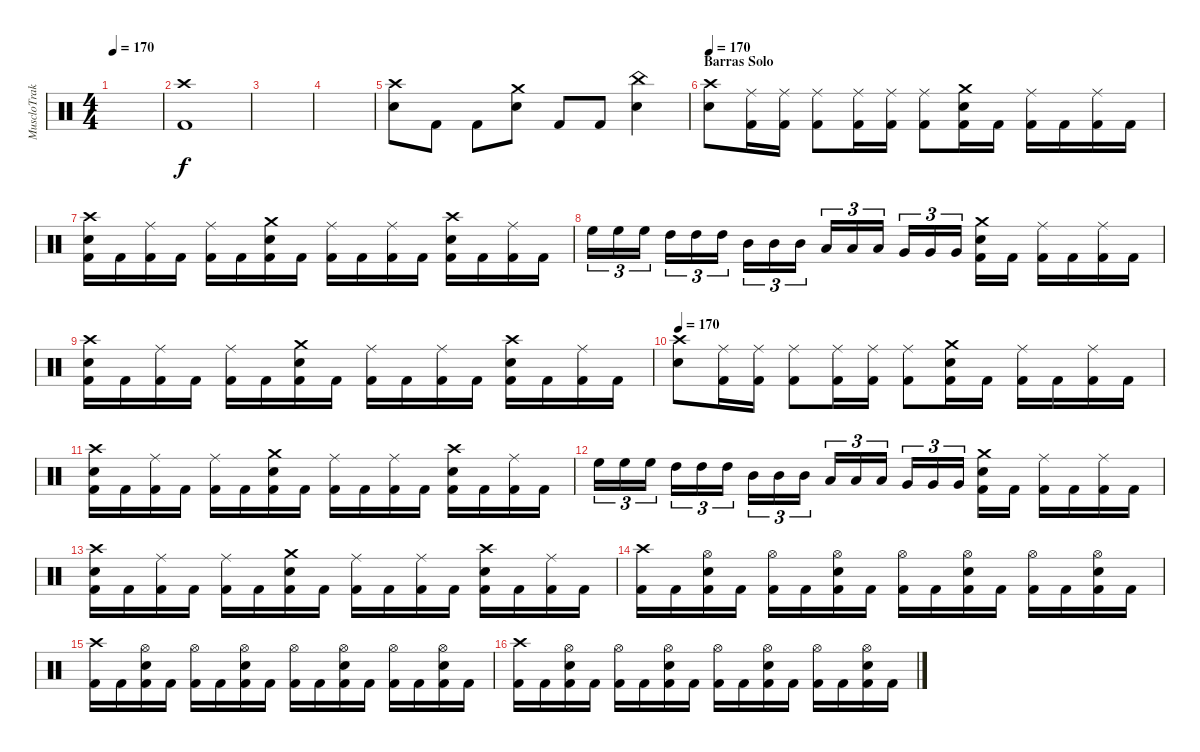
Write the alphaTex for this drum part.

\track ("MuscloTraktor" "MuscloTrak") {instrument percussion}
\staff {score}
\articulation defaults
\ts (4 4)
\tempo 170
\clef neutral
\ks c
|
("Kick (hit) 2" "Crash high (hit)").1 |
|
|
("Electric Snare (hit)" "Crash high (hit)").8 "Kick (hit) 2".8 "Kick (hit) 2".8 ("Electric Snare (hit)" "Crash medium (hit)").8 "Kick (hit) 2".8 "Kick (hit) 2".8 ("Electric Snare (hit)" "China (hit)").4 |
\section ("" "Barras Solo")
\tempo 170
("Electric Snare (hit)" "Crash high (hit)").8 ("Kick (hit) 2" "Ride (middle)").16 ("Kick (hit) 2" "Ride (middle)").16 ("Kick (hit) 2" "Ride (middle)").8 ("Kick (hit) 2" "Ride (middle)").16 ("Kick (hit) 2" "Ride (middle)").16 ("Kick (hit) 2" "Ride (middle)").8 ("Kick (hit) 2" "Electric Snare (hit)" "Crash medium (hit)").16 "Kick (hit) 2".16 ("Kick (hit) 2" "Ride (middle)").16 "Kick (hit) 2".16 ("Kick (hit) 2" "Ride (middle)").16 "Kick (hit) 2".16 |
("Kick (hit) 2" "Electric Snare (hit)" "Crash high (hit)").16 "Kick (hit) 2".16 ("Kick (hit) 2" "Ride (middle)").16 "Kick (hit) 2".16 ("Kick (hit) 2" "Ride (middle)").16 "Kick (hit) 2".16 ("Kick (hit) 2" "Electric Snare (hit)" "Crash medium (hit)").16 "Kick (hit) 2".16 ("Kick (hit) 2" "Ride (middle)").16 "Kick (hit) 2".16 ("Kick (hit) 2" "Ride (middle)").16 "Kick (hit) 2".16 ("Kick (hit) 2" "Electric Snare (hit)" "Crash high (hit)").16 "Kick (hit) 2".16 ("Kick (hit) 2" "Ride (middle)").16 "Kick (hit) 2".16 |
"High Floor Tom (hit)".16{tu (3 2)} "High Floor Tom (hit)".16{tu (3 2)} "High Floor Tom (hit)".16{tu (3 2)} "High Tom (hit)".16{tu (3 2)} "High Tom (hit)".16{tu (3 2)} "High Tom (hit)".16{tu (3 2)} "Mid Tom (hit)".16{tu (3 2)} "Mid Tom (hit)".16{tu (3 2)} "Mid Tom (hit)".16{tu (3 2)} "Low Tom (hit)".16{tu (3 2)} "Low Tom (hit)".16{tu (3 2)} "Low Tom (hit)".16{tu (3 2)} "Very Low Tom (hit)".16{tu (3 2)} "Very Low Tom (hit)".16{tu (3 2)} "Very Low Tom (hit)".16{tu (3 2)} ("Kick (hit) 2" "Electric Snare (hit)" "Crash medium (hit)").16 "Kick (hit) 2".16 ("Kick (hit) 2" "Ride (middle)").16 "Kick (hit) 2".16 ("Kick (hit) 2" "Ride (middle)").16 "Kick (hit) 2".16 |
("Kick (hit) 2" "Electric Snare (hit)" "Crash high (hit)").16 "Kick (hit) 2".16 ("Kick (hit) 2" "Ride (middle)").16 "Kick (hit) 2".16 ("Kick (hit) 2" "Ride (middle)").16 "Kick (hit) 2".16 ("Kick (hit) 2" "Electric Snare (hit)" "Crash medium (hit)").16 "Kick (hit) 2".16 ("Kick (hit) 2" "Ride (middle)").16 "Kick (hit) 2".16 ("Kick (hit) 2" "Ride (middle)").16 "Kick (hit) 2".16 ("Kick (hit) 2" "Electric Snare (hit)" "Crash high (hit)").16 "Kick (hit) 2".16 ("Kick (hit) 2" "Ride (middle)").16 "Kick (hit) 2".16 |
\tempo 170
("Electric Snare (hit)" "Crash high (hit)").8 ("Kick (hit) 2" "Ride (middle)").16 ("Kick (hit) 2" "Ride (middle)").16 ("Kick (hit) 2" "Ride (middle)").8 ("Kick (hit) 2" "Ride (middle)").16 ("Kick (hit) 2" "Ride (middle)").16 ("Kick (hit) 2" "Ride (middle)").8 ("Kick (hit) 2" "Electric Snare (hit)" "Crash medium (hit)").16 "Kick (hit) 2".16 ("Kick (hit) 2" "Ride (middle)").16 "Kick (hit) 2".16 ("Kick (hit) 2" "Ride (middle)").16 "Kick (hit) 2".16 |
("Kick (hit) 2" "Electric Snare (hit)" "Crash high (hit)").16 "Kick (hit) 2".16 ("Kick (hit) 2" "Ride (middle)").16 "Kick (hit) 2".16 ("Kick (hit) 2" "Ride (middle)").16 "Kick (hit) 2".16 ("Kick (hit) 2" "Electric Snare (hit)" "Crash medium (hit)").16 "Kick (hit) 2".16 ("Kick (hit) 2" "Ride (middle)").16 "Kick (hit) 2".16 ("Kick (hit) 2" "Ride (middle)").16 "Kick (hit) 2".16 ("Kick (hit) 2" "Electric Snare (hit)" "Crash high (hit)").16 "Kick (hit) 2".16 ("Kick (hit) 2" "Ride (middle)").16 "Kick (hit) 2".16 |
"High Floor Tom (hit)".16{tu (3 2)} "High Floor Tom (hit)".16{tu (3 2)} "High Floor Tom (hit)".16{tu (3 2)} "High Tom (hit)".16{tu (3 2)} "High Tom (hit)".16{tu (3 2)} "High Tom (hit)".16{tu (3 2)} "Mid Tom (hit)".16{tu (3 2)} "Mid Tom (hit)".16{tu (3 2)} "Mid Tom (hit)".16{tu (3 2)} "Low Tom (hit)".16{tu (3 2)} "Low Tom (hit)".16{tu (3 2)} "Low Tom (hit)".16{tu (3 2)} "Very Low Tom (hit)".16{tu (3 2)} "Very Low Tom (hit)".16{tu (3 2)} "Very Low Tom (hit)".16{tu (3 2)} ("Kick (hit) 2" "Electric Snare (hit)" "Crash medium (hit)").16 "Kick (hit) 2".16 ("Kick (hit) 2" "Ride (middle)").16 "Kick (hit) 2".16 ("Kick (hit) 2" "Ride (middle)").16 "Kick (hit) 2".16 |
("Kick (hit) 2" "Electric Snare (hit)" "Crash high (hit)").16 "Kick (hit) 2".16 ("Kick (hit) 2" "Ride (middle)").16 "Kick (hit) 2".16 ("Kick (hit) 2" "Ride (middle)").16 "Kick (hit) 2".16 ("Kick (hit) 2" "Electric Snare (hit)" "Crash medium (hit)").16 "Kick (hit) 2".16 ("Kick (hit) 2" "Ride (middle)").16 "Kick (hit) 2".16 ("Kick (hit) 2" "Ride (middle)").16 "Kick (hit) 2".16 ("Kick (hit) 2" "Electric Snare (hit)" "Crash high (hit)").16 "Kick (hit) 2".16 ("Kick (hit) 2" "Ride (middle)").16 "Kick (hit) 2".16 |
("Kick (hit) 2" "Crash high (hit)").16 "Kick (hit) 2".16 ("Kick (hit) 2" "Electric Snare (hit)" "Hi-Hat (open)").16 "Kick (hit) 2".16 ("Kick (hit) 2" "Hi-Hat (open)").16 "Kick (hit) 2".16 ("Kick (hit) 2" "Electric Snare (hit)" "Hi-Hat (open)").16 "Kick (hit) 2".16 ("Kick (hit) 2" "Hi-Hat (open)").16 "Kick (hit) 2".16 ("Kick (hit) 2" "Electric Snare (hit)" "Hi-Hat (open)").16 "Kick (hit) 2".16 ("Kick (hit) 2" "Hi-Hat (open)").16 "Kick (hit) 2".16 ("Kick (hit) 2" "Electric Snare (hit)" "Hi-Hat (open)").16 "Kick (hit) 2".16 |
("Kick (hit) 2" "Crash high (hit)").16 "Kick (hit) 2".16 ("Kick (hit) 2" "Electric Snare (hit)" "Hi-Hat (open)").16 "Kick (hit) 2".16 ("Kick (hit) 2" "Hi-Hat (open)").16 "Kick (hit) 2".16 ("Kick (hit) 2" "Electric Snare (hit)" "Hi-Hat (open)").16 "Kick (hit) 2".16 ("Kick (hit) 2" "Hi-Hat (open)").16 "Kick (hit) 2".16 ("Kick (hit) 2" "Electric Snare (hit)" "Hi-Hat (open)").16 "Kick (hit) 2".16 ("Kick (hit) 2" "Hi-Hat (open)").16 "Kick (hit) 2".16 ("Kick (hit) 2" "Electric Snare (hit)" "Hi-Hat (open)").16 "Kick (hit) 2".16 |
("Kick (hit) 2" "Crash high (hit)").16 "Kick (hit) 2".16 ("Kick (hit) 2" "Electric Snare (hit)" "Hi-Hat (open)").16 "Kick (hit) 2".16 ("Kick (hit) 2" "Hi-Hat (open)").16 "Kick (hit) 2".16 ("Kick (hit) 2" "Electric Snare (hit)" "Hi-Hat (open)").16 "Kick (hit) 2".16 ("Kick (hit) 2" "Hi-Hat (open)").16 "Kick (hit) 2".16 ("Kick (hit) 2" "Electric Snare (hit)" "Hi-Hat (open)").16 "Kick (hit) 2".16 ("Kick (hit) 2" "Hi-Hat (open)").16 "Kick (hit) 2".16 ("Kick (hit) 2" "Electric Snare (hit)" "Hi-Hat (open)").16 "Kick (hit) 2".16
